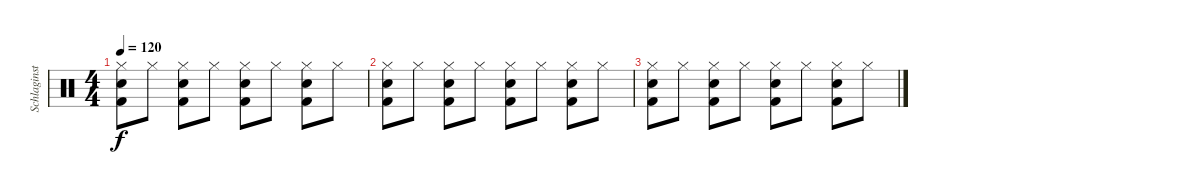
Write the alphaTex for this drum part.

\track ("Schlaginstrumente - Auswahl" "Schlaginst") {instrument percussion}
\staff {score}
\articulation defaults
\ts (4 4)
\tempo 120
\clef neutral
\ks c
("Hi-Hat (closed)" "Snare (hit) 2" "Kick (hit) 2").8{dy f} "Hi-Hat (closed)".8 ("Hi-Hat (closed)" "Snare (hit) 2" "Kick (hit) 2").8 "Hi-Hat (closed)".8 ("Hi-Hat (closed)" "Snare (hit) 2" "Kick (hit) 2").8 "Hi-Hat (closed)".8 ("Hi-Hat (closed)" "Snare (hit) 2" "Kick (hit) 2").8 "Hi-Hat (closed)".8 |
("Hi-Hat (closed)" "Snare (hit) 2" "Kick (hit) 2").8 "Hi-Hat (closed)".8 ("Hi-Hat (closed)" "Snare (hit) 2" "Kick (hit) 2").8 "Hi-Hat (closed)".8 ("Hi-Hat (closed)" "Snare (hit) 2" "Kick (hit) 2").8 "Hi-Hat (closed)".8 ("Hi-Hat (closed)" "Snare (hit) 2" "Kick (hit) 2").8 "Hi-Hat (closed)".8 |
("Hi-Hat (closed)" "Snare (hit) 2" "Kick (hit) 2").8 "Hi-Hat (closed)".8 ("Hi-Hat (closed)" "Snare (hit) 2" "Kick (hit) 2").8 "Hi-Hat (closed)".8 ("Hi-Hat (closed)" "Snare (hit) 2" "Kick (hit) 2").8 "Hi-Hat (closed)".8 ("Hi-Hat (closed)" "Snare (hit) 2" "Kick (hit) 2").8 "Hi-Hat (closed)".8
